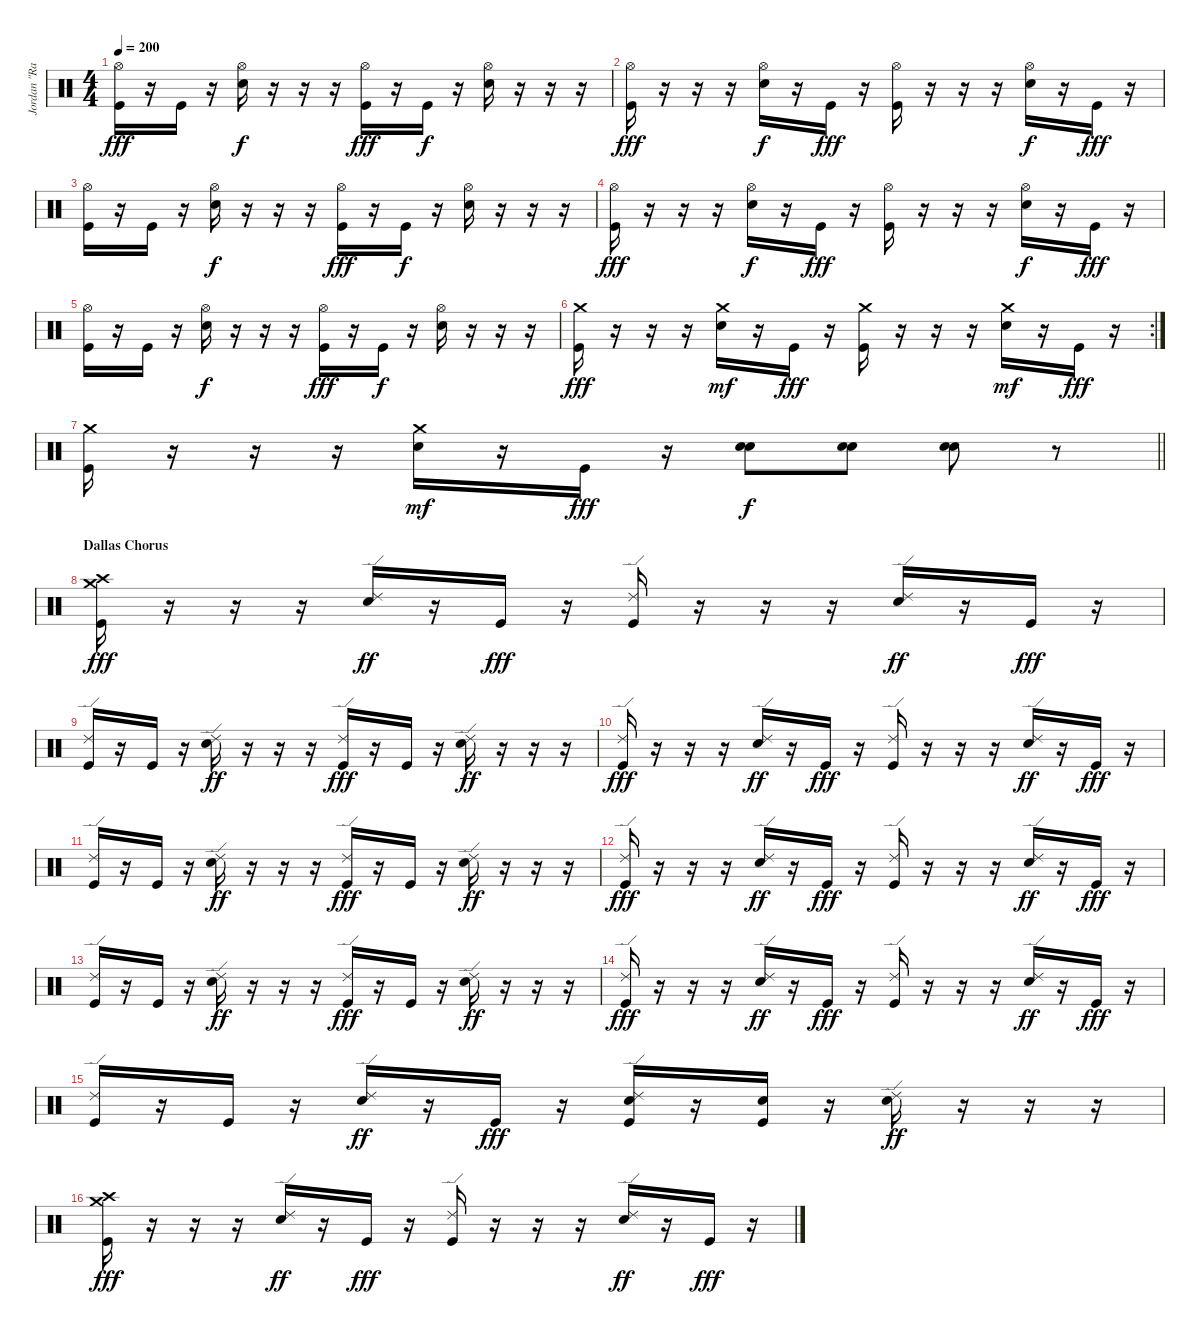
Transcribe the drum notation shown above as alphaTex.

\track ("Jordan \"Ratbeard\" Hastings" "Jordan \"Ra") {instrument percussion}
\staff {score}
\articulation defaults
\ts (4 4)
\tempo 200
\clef neutral
\ks c
("Hi-Hat (open)" "Kick (hit)").16{dy fff} r.16 "Kick (hit)".16 r.16 ("Hi-Hat (open)" "Electric Snare (hit)").16{dy f} r.16 r.16 r.16 ("Hi-Hat (open)" "Kick (hit)").16{dy fff} r.16 "Kick (hit)".16{dy f} r.16 ("Hi-Hat (open)" "Electric Snare (hit)").16 r.16 r.16 r.16 |
("Hi-Hat (open)" "Kick (hit)").16{dy fff} r.16 r.16 r.16 ("Hi-Hat (open)" "Electric Snare (hit)").16{dy f} r.16 "Kick (hit)".16{dy fff} r.16 ("Hi-Hat (open)" "Kick (hit)").16 r.16 r.16 r.16 ("Hi-Hat (open)" "Electric Snare (hit)").16{dy f} r.16 "Kick (hit)".16{dy fff} r.16 |
("Hi-Hat (open)" "Kick (hit)").16 r.16 "Kick (hit)".16 r.16 ("Hi-Hat (open)" "Electric Snare (hit)").16{dy f} r.16 r.16 r.16 ("Hi-Hat (open)" "Kick (hit)").16{dy fff} r.16 "Kick (hit)".16{dy f} r.16 ("Hi-Hat (open)" "Electric Snare (hit)").16 r.16 r.16 r.16 |
("Hi-Hat (open)" "Kick (hit)").16{dy fff} r.16 r.16 r.16 ("Hi-Hat (open)" "Electric Snare (hit)").16{dy f} r.16 "Kick (hit)".16{dy fff} r.16 ("Hi-Hat (open)" "Kick (hit)").16 r.16 r.16 r.16 ("Hi-Hat (open)" "Electric Snare (hit)").16{dy f} r.16 "Kick (hit)".16{dy fff} r.16 |
("Hi-Hat (open)" "Kick (hit)").16 r.16 "Kick (hit)".16 r.16 ("Hi-Hat (open)" "Electric Snare (hit)").16{dy f} r.16 r.16 r.16 ("Hi-Hat (open)" "Kick (hit)").16{dy fff} r.16 "Kick (hit)".16{dy f} r.16 ("Hi-Hat (open)" "Electric Snare (hit)").16 r.16 r.16 r.16 |
\rc 2
("Crash medium (hit)" "Kick (hit)").16{dy fff} r.16 r.16 r.16 ("Crash medium (hit)" "Electric Snare (hit)").16{dy mf} r.16 "Kick (hit)".16{dy fff} r.16 ("Crash medium (hit)" "Kick (hit)").16 r.16 r.16 r.16 ("Crash medium (hit)" "Electric Snare (hit)").16{dy mf} r.16 "Kick (hit)".16{dy fff} r.16 |
\barLineRight lightlight
("Crash medium (hit)" "Kick (hit)").16 r.16 r.16 r.16 ("Crash medium (hit)" "Electric Snare (hit)").16{dy mf} r.16 "Kick (hit)".16{dy fff} r.16 ("Electric Snare (hit)" "Electric Snare (hit)").8{dy f} ("Electric Snare (hit)" "Electric Snare (hit)").8 ("Electric Snare (hit)" "Electric Snare (hit)").8 r.8 |
\section ("" "Dallas Chorus")
("Crash high (hit)" "Crash medium (hit)" "Kick (hit)").16{dy fff} r.16 r.16 r.16 ("Ride (edge) 2" "Electric Snare (hit)").16{dy ff} r.16 "Kick (hit)".16{dy fff} r.16 ("Ride (edge) 2" "Kick (hit)").16 r.16 r.16 r.16 ("Ride (edge) 2" "Electric Snare (hit)").16{dy ff} r.16 "Kick (hit)".16{dy fff} r.16 |
("Ride (edge) 2" "Kick (hit)").16 r.16 "Kick (hit)".16 r.16 ("Ride (edge) 2" "Electric Snare (hit)").16{dy ff} r.16 r.16 r.16 ("Ride (edge) 2" "Kick (hit)").16{dy fff} r.16 "Kick (hit)".16 r.16 ("Ride (edge) 2" "Electric Snare (hit)").16{dy ff} r.16 r.16 r.16 |
("Ride (edge) 2" "Kick (hit)").16{dy fff} r.16 r.16 r.16 ("Ride (edge) 2" "Electric Snare (hit)").16{dy ff} r.16 "Kick (hit)".16{dy fff} r.16 ("Ride (edge) 2" "Kick (hit)").16 r.16 r.16 r.16 ("Ride (edge) 2" "Electric Snare (hit)").16{dy ff} r.16 "Kick (hit)".16{dy fff} r.16 |
("Ride (edge) 2" "Kick (hit)").16 r.16 "Kick (hit)".16 r.16 ("Ride (edge) 2" "Electric Snare (hit)").16{dy ff} r.16 r.16 r.16 ("Ride (edge) 2" "Kick (hit)").16{dy fff} r.16 "Kick (hit)".16 r.16 ("Ride (edge) 2" "Electric Snare (hit)").16{dy ff} r.16 r.16 r.16 |
("Ride (edge) 2" "Kick (hit)").16{dy fff} r.16 r.16 r.16 ("Ride (edge) 2" "Electric Snare (hit)").16{dy ff} r.16 "Kick (hit)".16{dy fff} r.16 ("Ride (edge) 2" "Kick (hit)").16 r.16 r.16 r.16 ("Ride (edge) 2" "Electric Snare (hit)").16{dy ff} r.16 "Kick (hit)".16{dy fff} r.16 |
("Ride (edge) 2" "Kick (hit)").16 r.16 "Kick (hit)".16 r.16 ("Ride (edge) 2" "Electric Snare (hit)").16{dy ff} r.16 r.16 r.16 ("Ride (edge) 2" "Kick (hit)").16{dy fff} r.16 "Kick (hit)".16 r.16 ("Ride (edge) 2" "Electric Snare (hit)").16{dy ff} r.16 r.16 r.16 |
("Ride (edge) 2" "Kick (hit)").16{dy fff} r.16 r.16 r.16 ("Ride (edge) 2" "Electric Snare (hit)").16{dy ff} r.16 "Kick (hit)".16{dy fff} r.16 ("Ride (edge) 2" "Kick (hit)").16 r.16 r.16 r.16 ("Ride (edge) 2" "Electric Snare (hit)").16{dy ff} r.16 "Kick (hit)".16{dy fff} r.16 |
("Ride (edge) 2" "Kick (hit)").16 r.16 "Kick (hit)".16 r.16 ("Ride (edge) 2" "Electric Snare (hit)").16{dy ff} r.16 "Kick (hit)".16{dy fff} r.16 ("Ride (edge) 2" "Electric Snare (hit)" "Kick (hit)").16 r.16 ("Electric Snare (hit)" "Kick (hit)").16 r.16 ("Ride (edge) 2" "Electric Snare (hit)").16{dy ff} r.16 r.16 r.16 |
("Crash medium (hit)" "Crash high (hit)" "Kick (hit)").16{dy fff} r.16 r.16 r.16 ("Ride (edge) 2" "Electric Snare (hit)").16{dy ff} r.16 "Kick (hit)".16{dy fff} r.16 ("Ride (edge) 2" "Kick (hit)").16 r.16 r.16 r.16 ("Ride (edge) 2" "Electric Snare (hit)").16{dy ff} r.16 "Kick (hit)".16{dy fff} r.16
